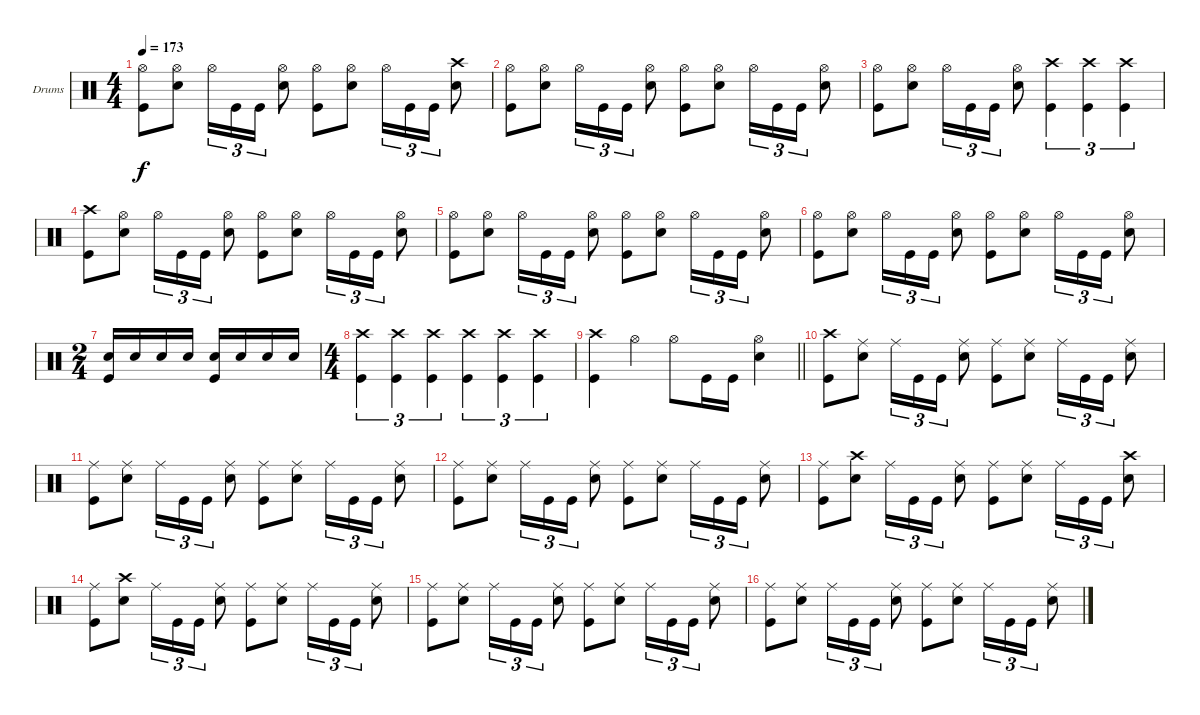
\bracketExtendMode groupsimilarinstruments
\firstSystemTrackNameOrientation horizontal
\otherSystemsTrackNameOrientation horizontal
\track ("Drums" "Drums") {instrument percussion}
\staff {score}
\articulation defaults
\ts (4 4)
\tempo 173
\clef neutral
\ks c
("Hi-Hat (open)" "Kick (hit)").8{dy f} ("Hi-Hat (open)" "Snare (hit) 2").8 "Hi-Hat (open)".16{tu (3 2)} "Kick (hit)".16{tu (3 2)} "Kick (hit)".16{tu (3 2)} ("Hi-Hat (open)" "Snare (hit) 2").8 ("Hi-Hat (open)" "Kick (hit)").8 ("Hi-Hat (open)" "Snare (hit) 2").8 "Hi-Hat (open)".16{tu (3 2)} "Kick (hit)".16{tu (3 2)} "Kick (hit)".16{tu (3 2)} ("Snare (hit) 2" "Crash high (hit)").8 |
("Hi-Hat (open)" "Kick (hit)").8 ("Hi-Hat (open)" "Snare (hit) 2").8 "Hi-Hat (open)".16{tu (3 2)} "Kick (hit)".16{tu (3 2)} "Kick (hit)".16{tu (3 2)} ("Hi-Hat (open)" "Snare (hit) 2").8 ("Hi-Hat (open)" "Kick (hit)").8 ("Hi-Hat (open)" "Snare (hit) 2").8 "Hi-Hat (open)".16{tu (3 2)} "Kick (hit)".16{tu (3 2)} "Kick (hit)".16{tu (3 2)} ("Hi-Hat (open)" "Snare (hit) 2").8 |
("Hi-Hat (open)" "Kick (hit)").8 ("Hi-Hat (open)" "Snare (hit) 2").8 "Hi-Hat (open)".16{tu (3 2)} "Kick (hit)".16{tu (3 2)} "Kick (hit)".16{tu (3 2)} ("Hi-Hat (open)" "Snare (hit) 2").8 ("Crash high (hit)" "Kick (hit)").4{tu (3 2)} ("Crash high (hit)" "Kick (hit)").4{tu (3 2)} ("Crash high (hit)" "Kick (hit)").4{tu (3 2)} |
("Crash high (hit)" "Kick (hit)").8 ("Hi-Hat (open)" "Snare (hit) 2").8 "Hi-Hat (open)".16{tu (3 2)} "Kick (hit)".16{tu (3 2)} "Kick (hit)".16{tu (3 2)} ("Hi-Hat (open)" "Snare (hit) 2").8 ("Hi-Hat (open)" "Kick (hit)").8 ("Hi-Hat (open)" "Snare (hit) 2").8 "Hi-Hat (open)".16{tu (3 2)} "Kick (hit)".16{tu (3 2)} "Kick (hit)".16{tu (3 2)} ("Hi-Hat (open)" "Snare (hit) 2").8 |
("Hi-Hat (open)" "Kick (hit)").8 ("Hi-Hat (open)" "Snare (hit) 2").8 "Hi-Hat (open)".16{tu (3 2)} "Kick (hit)".16{tu (3 2)} "Kick (hit)".16{tu (3 2)} ("Hi-Hat (open)" "Snare (hit) 2").8 ("Hi-Hat (open)" "Kick (hit)").8 ("Hi-Hat (open)" "Snare (hit) 2").8 "Hi-Hat (open)".16{tu (3 2)} "Kick (hit)".16{tu (3 2)} "Kick (hit)".16{tu (3 2)} ("Hi-Hat (open)" "Snare (hit) 2").8 |
("Hi-Hat (open)" "Kick (hit)").8 ("Hi-Hat (open)" "Snare (hit) 2").8 "Hi-Hat (open)".16{tu (3 2)} "Kick (hit)".16{tu (3 2)} "Kick (hit)".16{tu (3 2)} ("Hi-Hat (open)" "Snare (hit) 2").8 ("Hi-Hat (open)" "Kick (hit)").8 ("Hi-Hat (open)" "Snare (hit) 2").8 "Hi-Hat (open)".16{tu (3 2)} "Kick (hit)".16{tu (3 2)} "Kick (hit)".16{tu (3 2)} ("Hi-Hat (open)" "Snare (hit) 2").8 |
\ts (2 4)
("Snare (hit) 2" "Kick (hit)").16 "Snare (hit) 2".16 "Snare (hit) 2".16 "Snare (hit) 2".16 ("Snare (hit) 2" "Kick (hit)").16 "Snare (hit) 2".16 "Snare (hit) 2".16 "Snare (hit) 2".16 |
\ts (4 4)
("Crash high (hit)" "Kick (hit)").4{tu (3 2)} ("Crash high (hit)" "Kick (hit)").4{tu (3 2)} ("Crash high (hit)" "Kick (hit)").4{tu (3 2)} ("Crash high (hit)" "Kick (hit)").4{tu (3 2)} ("Crash high (hit)" "Kick (hit)").4{tu (3 2)} ("Crash high (hit)" "Kick (hit)").4{tu (3 2)} |
\barLineRight lightlight
("Crash high (hit)" "Kick (hit)").4 "Hi-Hat (open)".4 "Hi-Hat (open)".8 "Kick (hit)".16 "Kick (hit)".16 ("Snare (hit) 2" "Hi-Hat (open)").4 |
("Crash high (hit)" "Kick (hit)").8 ("Snare (hit) 2" "Ride (middle)").8 "Ride (middle)".16{tu (3 2)} "Kick (hit)".16{tu (3 2)} "Kick (hit)".16{tu (3 2)} ("Snare (hit) 2" "Ride (middle)").8 ("Kick (hit)" "Ride (middle)").8 ("Snare (hit) 2" "Ride (middle)").8 "Ride (middle)".16{tu (3 2)} "Kick (hit)".16{tu (3 2)} "Kick (hit)".16{tu (3 2)} ("Snare (hit) 2" "Ride (middle)").8 |
("Kick (hit)" "Ride (middle)").8 ("Snare (hit) 2" "Ride (middle)").8 "Ride (middle)".16{tu (3 2)} "Kick (hit)".16{tu (3 2)} "Kick (hit)".16{tu (3 2)} ("Snare (hit) 2" "Ride (middle)").8 ("Kick (hit)" "Ride (middle)").8 ("Snare (hit) 2" "Ride (middle)").8 "Ride (middle)".16{tu (3 2)} "Kick (hit)".16{tu (3 2)} "Kick (hit)".16{tu (3 2)} ("Snare (hit) 2" "Ride (middle)").8 |
("Kick (hit)" "Ride (middle)").8 ("Snare (hit) 2" "Ride (middle)").8 "Ride (middle)".16{tu (3 2)} "Kick (hit)".16{tu (3 2)} "Kick (hit)".16{tu (3 2)} ("Snare (hit) 2" "Ride (middle)").8 ("Kick (hit)" "Ride (middle)").8 ("Snare (hit) 2" "Ride (middle)").8 "Ride (middle)".16{tu (3 2)} "Kick (hit)".16{tu (3 2)} "Kick (hit)".16{tu (3 2)} ("Snare (hit) 2" "Ride (middle)").8 |
("Kick (hit)" "Ride (middle)").8 ("Snare (hit) 2" "Crash high (hit)").8 "Ride (middle)".16{tu (3 2)} "Kick (hit)".16{tu (3 2)} "Kick (hit)".16{tu (3 2)} ("Snare (hit) 2" "Ride (middle)").8 ("Kick (hit)" "Ride (middle)").8 ("Snare (hit) 2" "Ride (middle)").8 "Ride (middle)".16{tu (3 2)} "Kick (hit)".16{tu (3 2)} "Kick (hit)".16{tu (3 2)} ("Snare (hit) 2" "Crash high (hit)").8 |
("Kick (hit)" "Ride (middle)").8 ("Snare (hit) 2" "Crash high (hit)").8 "Ride (middle)".16{tu (3 2)} "Kick (hit)".16{tu (3 2)} "Kick (hit)".16{tu (3 2)} ("Snare (hit) 2" "Ride (middle)").8 ("Kick (hit)" "Ride (middle)").8 ("Snare (hit) 2" "Ride (middle)").8 "Ride (middle)".16{tu (3 2)} "Kick (hit)".16{tu (3 2)} "Kick (hit)".16{tu (3 2)} ("Snare (hit) 2" "Ride (middle)").8 |
("Kick (hit)" "Ride (middle)").8 ("Snare (hit) 2" "Ride (middle)").8 "Ride (middle)".16{tu (3 2)} "Kick (hit)".16{tu (3 2)} "Kick (hit)".16{tu (3 2)} ("Snare (hit) 2" "Ride (middle)").8 ("Kick (hit)" "Ride (middle)").8 ("Snare (hit) 2" "Ride (middle)").8 "Ride (middle)".16{tu (3 2)} "Kick (hit)".16{tu (3 2)} "Kick (hit)".16{tu (3 2)} ("Snare (hit) 2" "Ride (middle)").8 |
("Kick (hit)" "Ride (middle)").8 ("Snare (hit) 2" "Ride (middle)").8 "Ride (middle)".16{tu (3 2)} "Kick (hit)".16{tu (3 2)} "Kick (hit)".16{tu (3 2)} ("Snare (hit) 2" "Ride (middle)").8 ("Kick (hit)" "Ride (middle)").8 ("Snare (hit) 2" "Ride (middle)").8 "Ride (middle)".16{tu (3 2)} "Kick (hit)".16{tu (3 2)} "Kick (hit)".16{tu (3 2)} ("Snare (hit) 2" "Ride (middle)").8
